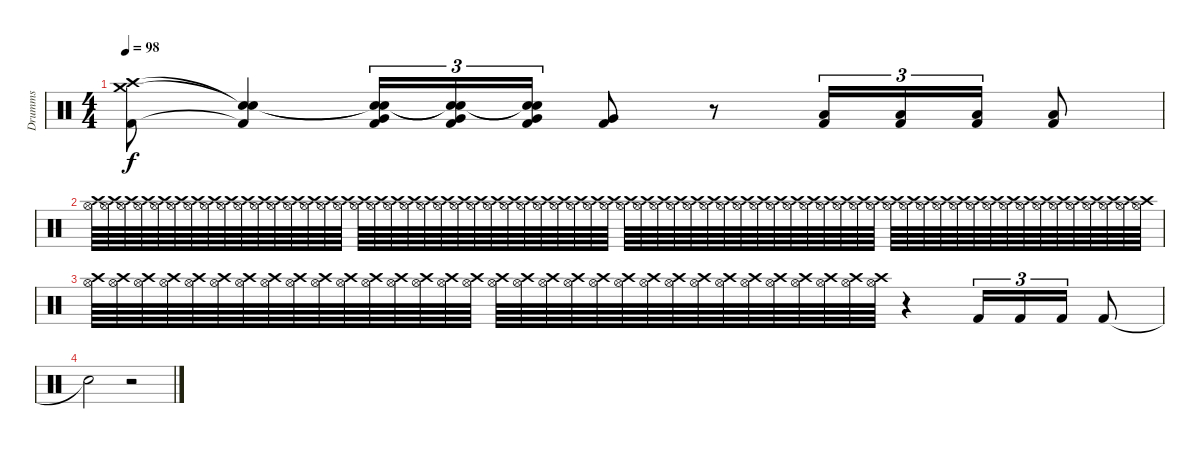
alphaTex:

\track ("Drumms" "Drumms") {instrument percussion}
\staff {score}
\articulation defaults
\ts (4 4)
\tempo 98
\clef neutral
\ks c
("Crash high (hit)" "Crash medium (hit)" "Kick (hit) 2").8{dy f} ("Snare (hit)"{t} "Snare (hit)"{t} "Kick (hit) 2"{t}).4 ("Snare (hit)"{t} "Snare (hit) 2"{t} "Kick (hit) 2" "Very Low Tom (hit)").16{tu (3 2)} ("Snare (hit)"{t} "Snare (hit)"{t} "Kick (hit) 2" "Very Low Tom (hit)").16{tu (3 2)} ("Snare (hit)"{t} "Snare (hit)"{t} "Kick (hit) 2" "Very Low Tom (hit)").16{tu (3 2)} ("Kick (hit) 2" "Very Low Tom (hit)").8 r.8 ("Kick (hit) 2" "Low Tom (hit)").16{tu (3 2)} ("Kick (hit) 2" "Low Tom (hit)").16{tu (3 2)} ("Kick (hit) 2" "Low Tom (hit)").16{tu (3 2)} ("Kick (hit) 2" "Low Tom (hit)").8 |
("Crash high (hit)" "Hi-Hat (open)").64 ("Crash high (hit)" "Hi-Hat (open)").64 ("Crash high (hit)" "Hi-Hat (open)").64 ("Crash high (hit)" "Hi-Hat (open)").64 ("Crash high (hit)" "Hi-Hat (open)").64 ("Crash high (hit)" "Hi-Hat (open)").64 ("Crash high (hit)" "Hi-Hat (open)").64 ("Crash high (hit)" "Hi-Hat (open)").64 ("Crash high (hit)" "Hi-Hat (open)").64 ("Crash high (hit)" "Hi-Hat (open)").64 ("Crash high (hit)" "Hi-Hat (open)").64 ("Crash high (hit)" "Hi-Hat (open)").64 ("Crash high (hit)" "Hi-Hat (open)").64 ("Crash high (hit)" "Hi-Hat (open)").64 ("Crash high (hit)" "Hi-Hat (open)").64 ("Crash high (hit)" "Hi-Hat (open)").64 ("Crash high (hit)" "Hi-Hat (open)").64 ("Crash high (hit)" "Hi-Hat (open)").64 ("Crash high (hit)" "Hi-Hat (open)").64 ("Crash high (hit)" "Hi-Hat (open)").64 ("Crash high (hit)" "Hi-Hat (open)").64 ("Crash high (hit)" "Hi-Hat (open)").64 ("Crash high (hit)" "Hi-Hat (open)").64 ("Crash high (hit)" "Hi-Hat (open)").64 ("Crash high (hit)" "Hi-Hat (open)").64 ("Crash high (hit)" "Hi-Hat (open)").64 ("Crash high (hit)" "Hi-Hat (open)").64 ("Crash high (hit)" "Hi-Hat (open)").64 ("Crash high (hit)" "Hi-Hat (open)").64 ("Crash high (hit)" "Hi-Hat (open)").64 ("Crash high (hit)" "Hi-Hat (open)").64 ("Crash high (hit)" "Hi-Hat (open)").64 ("Crash high (hit)" "Hi-Hat (open)").64 ("Crash high (hit)" "Hi-Hat (open)").64 ("Crash high (hit)" "Hi-Hat (open)").64 ("Crash high (hit)" "Hi-Hat (open)").64 ("Crash high (hit)" "Hi-Hat (open)").64 ("Crash high (hit)" "Hi-Hat (open)").64 ("Crash high (hit)" "Hi-Hat (open)").64 ("Crash high (hit)" "Hi-Hat (open)").64 ("Crash high (hit)" "Hi-Hat (open)").64 ("Crash high (hit)" "Hi-Hat (open)").64 ("Crash high (hit)" "Hi-Hat (open)").64 ("Crash high (hit)" "Hi-Hat (open)").64 ("Crash high (hit)" "Hi-Hat (open)").64 ("Crash high (hit)" "Hi-Hat (open)").64 ("Crash high (hit)" "Hi-Hat (open)").64 ("Crash high (hit)" "Hi-Hat (open)").64 ("Crash high (hit)" "Hi-Hat (open)").64 ("Crash high (hit)" "Hi-Hat (open)").64 ("Crash high (hit)" "Hi-Hat (open)").64 ("Crash high (hit)" "Hi-Hat (open)").64 ("Crash high (hit)" "Hi-Hat (open)").64 ("Crash high (hit)" "Hi-Hat (open)").64 ("Crash high (hit)" "Hi-Hat (open)").64 ("Crash high (hit)" "Hi-Hat (open)").64 ("Crash high (hit)" "Hi-Hat (open)").64 ("Crash high (hit)" "Hi-Hat (open)").64 ("Crash high (hit)" "Hi-Hat (open)").64 ("Crash high (hit)" "Hi-Hat (open)").64 ("Crash high (hit)" "Hi-Hat (open)").64 ("Crash high (hit)" "Hi-Hat (open)").64 ("Crash high (hit)" "Hi-Hat (open)").64 ("Crash high (hit)" "Hi-Hat (open)").64 |
("Crash high (hit)" "Hi-Hat (open)").64 ("Crash high (hit)" "Hi-Hat (open)").64 ("Crash high (hit)" "Hi-Hat (open)").64 ("Crash high (hit)" "Hi-Hat (open)").64 ("Crash high (hit)" "Hi-Hat (open)").64 ("Crash high (hit)" "Hi-Hat (open)").64 ("Crash high (hit)" "Hi-Hat (open)").64 ("Crash high (hit)" "Hi-Hat (open)").64 ("Crash high (hit)" "Hi-Hat (open)").64 ("Crash high (hit)" "Hi-Hat (open)").64 ("Crash high (hit)" "Hi-Hat (open)").64 ("Crash high (hit)" "Hi-Hat (open)").64 ("Crash high (hit)" "Hi-Hat (open)").64 ("Crash high (hit)" "Hi-Hat (open)").64 ("Crash high (hit)" "Hi-Hat (open)").64 ("Crash high (hit)" "Hi-Hat (open)").64 ("Crash high (hit)" "Hi-Hat (open)").64 ("Crash high (hit)" "Hi-Hat (open)").64 ("Crash high (hit)" "Hi-Hat (open)").64 ("Crash high (hit)" "Hi-Hat (open)").64 ("Crash high (hit)" "Hi-Hat (open)").64 ("Crash high (hit)" "Hi-Hat (open)").64 ("Crash high (hit)" "Hi-Hat (open)").64 ("Crash high (hit)" "Hi-Hat (open)").64 ("Crash high (hit)" "Hi-Hat (open)").64 ("Crash high (hit)" "Hi-Hat (open)").64 ("Crash high (hit)" "Hi-Hat (open)").64 ("Crash high (hit)" "Hi-Hat (open)").64 ("Crash high (hit)" "Hi-Hat (open)").64 ("Crash high (hit)" "Hi-Hat (open)").64 ("Crash high (hit)" "Hi-Hat (open)").64 ("Crash high (hit)" "Hi-Hat (open)").64 r.4 "Kick (hit) 2".16{tu (3 2)} "Kick (hit) 2".16{tu (3 2)} "Kick (hit) 2".16{tu (3 2)} "Kick (hit) 2".8 |
"Snare (hit)"{t}.2 r.2
